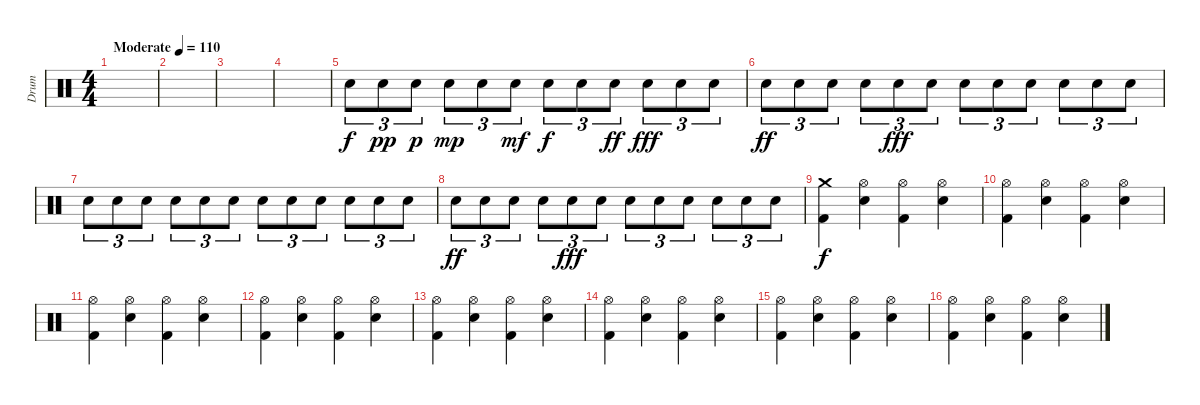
\track ("Drum" "Drum") {instrument percussion}
\staff {score}
\articulation defaults
\ts (4 4)
\tempo (110 "Moderate")
\clef neutral
\ks c
|
|
|
|
"Electric Snare (hit)".8{tu (3 2)} "Electric Snare (hit)".8{tu (3 2) dy pp} "Electric Snare (hit)".8{tu (3 2) dy p} "Electric Snare (hit)".8{tu (3 2) dy mp} "Electric Snare (hit)".8{tu (3 2)} "Electric Snare (hit)".8{tu (3 2) dy mf} "Electric Snare (hit)".8{tu (3 2) dy f} "Electric Snare (hit)".8{tu (3 2)} "Electric Snare (hit)".8{tu (3 2) dy ff} "Electric Snare (hit)".8{tu (3 2) dy fff} "Electric Snare (hit)".8{tu (3 2)} "Electric Snare (hit)".8{tu (3 2)} |
"Electric Snare (hit)".8{tu (3 2) dy ff} "Electric Snare (hit)".8{tu (3 2)} "Electric Snare (hit)".8{tu (3 2)} "Electric Snare (hit)".8{tu (3 2)} "Electric Snare (hit)".8{tu (3 2) dy fff} "Electric Snare (hit)".8{tu (3 2)} "Electric Snare (hit)".8{tu (3 2)} "Electric Snare (hit)".8{tu (3 2)} "Electric Snare (hit)".8{tu (3 2)} "Electric Snare (hit)".8{tu (3 2)} "Electric Snare (hit)".8{tu (3 2)} "Electric Snare (hit)".8{tu (3 2)} |
"Electric Snare (hit)".8{tu (3 2)} "Electric Snare (hit)".8{tu (3 2)} "Electric Snare (hit)".8{tu (3 2)} "Electric Snare (hit)".8{tu (3 2)} "Electric Snare (hit)".8{tu (3 2)} "Electric Snare (hit)".8{tu (3 2)} "Electric Snare (hit)".8{tu (3 2)} "Electric Snare (hit)".8{tu (3 2)} "Electric Snare (hit)".8{tu (3 2)} "Electric Snare (hit)".8{tu (3 2)} "Electric Snare (hit)".8{tu (3 2)} "Electric Snare (hit)".8{tu (3 2)} |
"Electric Snare (hit)".8{tu (3 2) dy ff} "Electric Snare (hit)".8{tu (3 2)} "Electric Snare (hit)".8{tu (3 2)} "Electric Snare (hit)".8{tu (3 2)} "Electric Snare (hit)".8{tu (3 2) dy fff} "Electric Snare (hit)".8{tu (3 2)} "Electric Snare (hit)".8{tu (3 2)} "Electric Snare (hit)".8{tu (3 2)} "Electric Snare (hit)".8{tu (3 2)} "Electric Snare (hit)".8{tu (3 2)} "Electric Snare (hit)".8{tu (3 2)} "Electric Snare (hit)".8{tu (3 2)} |
("Crash medium (hit)" "Kick (hit) 2").4{dy f} ("Hi-Hat (open)" "Electric Snare (hit)").4 ("Hi-Hat (open)" "Kick (hit) 2").4 ("Hi-Hat (open)" "Electric Snare (hit)").4 |
("Hi-Hat (open)" "Kick (hit) 2").4 ("Hi-Hat (open)" "Electric Snare (hit)").4 ("Hi-Hat (open)" "Kick (hit) 2").4 ("Hi-Hat (open)" "Electric Snare (hit)").4 |
("Hi-Hat (open)" "Kick (hit) 2").4 ("Hi-Hat (open)" "Electric Snare (hit)").4 ("Hi-Hat (open)" "Kick (hit) 2").4 ("Hi-Hat (open)" "Electric Snare (hit)").4 |
("Hi-Hat (open)" "Kick (hit) 2").4 ("Hi-Hat (open)" "Electric Snare (hit)").4 ("Hi-Hat (open)" "Kick (hit) 2").4 ("Hi-Hat (open)" "Electric Snare (hit)").4 |
("Hi-Hat (open)" "Kick (hit) 2").4 ("Hi-Hat (open)" "Electric Snare (hit)").4 ("Hi-Hat (open)" "Kick (hit) 2").4 ("Hi-Hat (open)" "Electric Snare (hit)").4 |
("Hi-Hat (open)" "Kick (hit) 2").4 ("Hi-Hat (open)" "Electric Snare (hit)").4 ("Hi-Hat (open)" "Kick (hit) 2").4 ("Hi-Hat (open)" "Electric Snare (hit)").4 |
("Hi-Hat (open)" "Kick (hit) 2").4 ("Hi-Hat (open)" "Electric Snare (hit)").4 ("Hi-Hat (open)" "Kick (hit) 2").4 ("Hi-Hat (open)" "Electric Snare (hit)").4 |
("Hi-Hat (open)" "Kick (hit) 2").4 ("Hi-Hat (open)" "Electric Snare (hit)").4 ("Hi-Hat (open)" "Kick (hit) 2").4 ("Hi-Hat (open)" "Electric Snare (hit)").4
